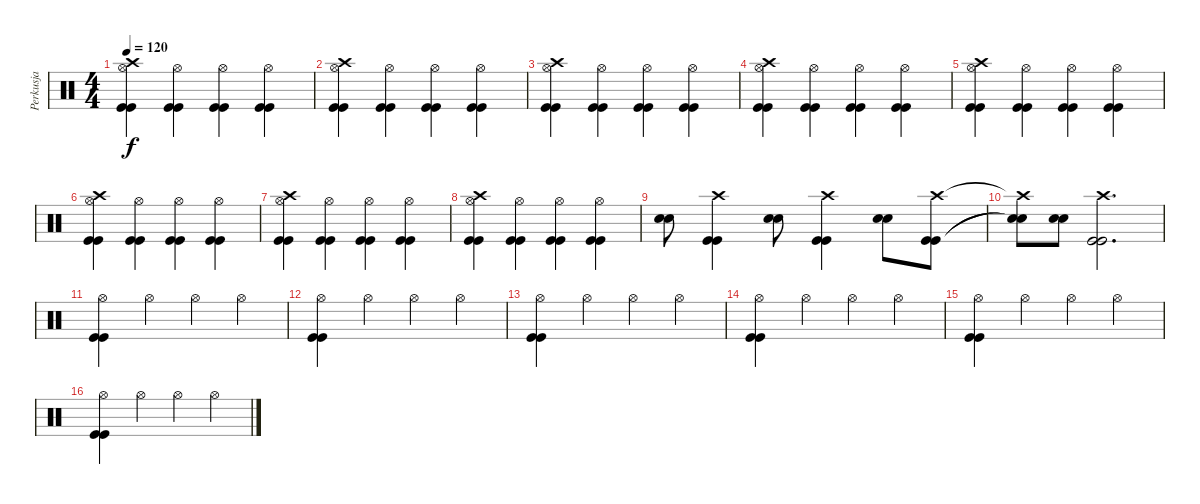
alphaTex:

\track ("Perkusja" "Perkusja") {instrument percussion}
\staff
\articulation defaults
\ts (4 4)
\tempo 120
\clef neutral
\ks c
("Crash high (hit)" "Hi-Hat (open)" "Kick (hit)" "Kick (hit)").4{dy f} ("Hi-Hat (open)" "Kick (hit)" "Kick (hit)").4 ("Hi-Hat (open)" "Kick (hit)" "Kick (hit)").4 ("Hi-Hat (open)" "Kick (hit)" "Kick (hit)").4 |
("Crash high (hit)" "Hi-Hat (open)" "Kick (hit)" "Kick (hit)").4 ("Hi-Hat (open)" "Kick (hit)" "Kick (hit)").4 ("Hi-Hat (open)" "Kick (hit)" "Kick (hit)").4 ("Hi-Hat (open)" "Kick (hit)" "Kick (hit)").4 |
("Crash high (hit)" "Hi-Hat (open)" "Kick (hit)" "Kick (hit)").4 ("Hi-Hat (open)" "Kick (hit)" "Kick (hit)").4 ("Hi-Hat (open)" "Kick (hit)" "Kick (hit)").4 ("Hi-Hat (open)" "Kick (hit)" "Kick (hit)").4 |
("Crash high (hit)" "Hi-Hat (open)" "Kick (hit)" "Kick (hit)").4 ("Hi-Hat (open)" "Kick (hit)" "Kick (hit)").4 ("Hi-Hat (open)" "Kick (hit)" "Kick (hit)").4 ("Hi-Hat (open)" "Kick (hit)" "Kick (hit)").4 |
("Crash high (hit)" "Hi-Hat (open)" "Kick (hit)" "Kick (hit)").4 ("Hi-Hat (open)" "Kick (hit)" "Kick (hit)").4 ("Hi-Hat (open)" "Kick (hit)" "Kick (hit)").4 ("Hi-Hat (open)" "Kick (hit)" "Kick (hit)").4 |
("Crash high (hit)" "Hi-Hat (open)" "Kick (hit)" "Kick (hit)").4 ("Hi-Hat (open)" "Kick (hit)" "Kick (hit)").4 ("Hi-Hat (open)" "Kick (hit)" "Kick (hit)").4 ("Hi-Hat (open)" "Kick (hit)" "Kick (hit)").4 |
("Crash high (hit)" "Hi-Hat (open)" "Kick (hit)" "Kick (hit)").4 ("Hi-Hat (open)" "Kick (hit)" "Kick (hit)").4 ("Hi-Hat (open)" "Kick (hit)" "Kick (hit)").4 ("Hi-Hat (open)" "Kick (hit)" "Kick (hit)").4 |
("Crash high (hit)" "Hi-Hat (open)" "Kick (hit)" "Kick (hit)").4 ("Hi-Hat (open)" "Kick (hit)" "Kick (hit)").4 ("Hi-Hat (open)" "Kick (hit)" "Kick (hit)").4 ("Hi-Hat (open)" "Kick (hit)" "Kick (hit)").4 |
("Snare (hit) 2" "Snare (hit) 2").8 ("Crash high (hit)" "Kick (hit)" "Kick (hit)").4 ("Snare (hit) 2" "Snare (hit) 2").8 ("Crash high (hit)" "Kick (hit)" "Kick (hit)").4 ("Snare (hit) 2" "Snare (hit) 2").8 ("Crash high (hit)" "Kick (hit)" "Kick (hit)").8 |
("Crash high (hit)"{t} "Snare (hit)"{t} "Snare (hit)"{t}).8 ("Snare (hit) 2" "Snare (hit) 2").8 ("Crash high (hit)" "Kick (hit)" "Kick (hit)").2{d} |
("Hi-Hat (open)" "Kick (hit)" "Kick (hit)").4 "Hi-Hat (open)".4 "Hi-Hat (open)".4 "Hi-Hat (open)".4 |
("Hi-Hat (open)" "Kick (hit)" "Kick (hit)").4 "Hi-Hat (open)".4 "Hi-Hat (open)".4 "Hi-Hat (open)".4 |
("Hi-Hat (open)" "Kick (hit)" "Kick (hit)").4 "Hi-Hat (open)".4 "Hi-Hat (open)".4 "Hi-Hat (open)".4 |
("Hi-Hat (open)" "Kick (hit)" "Kick (hit)").4 "Hi-Hat (open)".4 "Hi-Hat (open)".4 "Hi-Hat (open)".4 |
("Hi-Hat (open)" "Kick (hit)" "Kick (hit)").4 "Hi-Hat (open)".4 "Hi-Hat (open)".4 "Hi-Hat (open)".4 |
("Hi-Hat (open)" "Kick (hit)" "Kick (hit)").4 "Hi-Hat (open)".4 "Hi-Hat (open)".4 "Hi-Hat (open)".4
